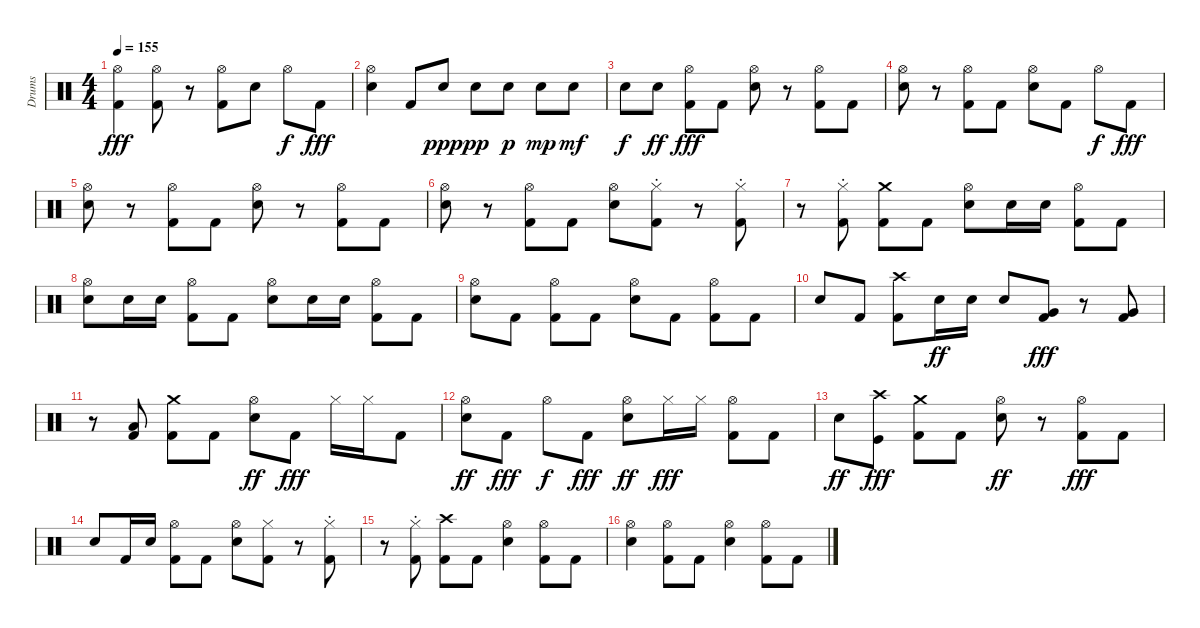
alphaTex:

\track ("Drums" "Drums") {instrument percussion}
\staff {score}
\articulation defaults
\ts (4 4)
\tempo 155
\clef neutral
\ks c
("Hi-Hat (open)" "Kick (hit) 2").4{dy fff} ("Hi-Hat (open)" "Kick (hit) 2").8 r.8 ("Hi-Hat (open)" "Kick (hit) 2").8 "Snare (hit) 2".8 "Hi-Hat (open)".8{dy f} "Kick (hit) 2".8{dy fff} |
("Hi-Hat (open)" "Snare (hit) 2").4 "Kick (hit) 2".8 "Snare (hit) 2".8{dy ppp} "Snare (hit) 2".8{dy pp} "Snare (hit) 2".8{dy p} "Snare (hit) 2".8{dy mp} "Snare (hit) 2".8{dy mf} |
"Snare (hit) 2".8{dy f} "Snare (hit) 2".8{dy ff} ("Hi-Hat (open)" "Kick (hit) 2").8{dy fff} "Kick (hit) 2".8 ("Hi-Hat (open)" "Snare (hit) 2").8 r.8 ("Hi-Hat (open)" "Kick (hit) 2").8 "Kick (hit) 2".8 |
("Hi-Hat (open)" "Snare (hit) 2").8 r.8 ("Hi-Hat (open)" "Kick (hit) 2").8 "Kick (hit) 2".8 ("Hi-Hat (open)" "Snare (hit) 2").8 "Kick (hit) 2".8 "Hi-Hat (open)".8{dy f} "Kick (hit) 2".8{dy fff} |
("Hi-Hat (open)" "Snare (hit) 2").8 r.8 ("Hi-Hat (open)" "Kick (hit) 2").8 "Kick (hit) 2".8 ("Hi-Hat (open)" "Snare (hit) 2").8 r.8 ("Hi-Hat (open)" "Kick (hit) 2").8 "Kick (hit) 2".8 |
("Hi-Hat (open)" "Snare (hit) 2").8 r.8 ("Hi-Hat (open)" "Kick (hit) 2").8 "Kick (hit) 2".8 ("Hi-Hat (open)" "Snare (hit) 2").8 ("Hi-Hat (closed)"{st} "Kick (hit) 2").8 r.8 ("Hi-Hat (closed)"{st} "Kick (hit) 2").8 |
r.8 ("Hi-Hat (closed)"{st} "Kick (hit) 2").8 ("Crash medium (hit)" "Kick (hit) 2").8 "Kick (hit) 2".8 ("Hi-Hat (open)" "Snare (hit) 2").8 "Snare (hit) 2".16 "Snare (hit) 2".16 ("Hi-Hat (open)" "Kick (hit) 2").8 "Kick (hit) 2".8 |
("Hi-Hat (open)" "Snare (hit) 2").8 "Snare (hit) 2".16 "Snare (hit) 2".16 ("Hi-Hat (open)" "Kick (hit) 2").8 "Kick (hit) 2".8 ("Hi-Hat (open)" "Snare (hit) 2").8 "Snare (hit) 2".16 "Snare (hit) 2".16 ("Hi-Hat (open)" "Kick (hit) 2").8 "Kick (hit) 2".8 |
("Hi-Hat (open)" "Snare (hit) 2").8 "Kick (hit) 2".8 ("Hi-Hat (open)" "Kick (hit) 2").8 "Kick (hit) 2".8 ("Hi-Hat (open)" "Snare (hit) 2").8 "Kick (hit) 2".8 ("Hi-Hat (open)" "Kick (hit) 2").8 "Kick (hit) 2".8 |
"Snare (hit) 2".8 "Kick (hit) 2".8 ("Crash high (hit)" "Kick (hit) 2").8 "Snare (hit) 2".16{dy ff} "Snare (hit) 2".16 "Snare (hit) 2".8 ("Very Low Tom (hit)" "Kick (hit) 2").8{dy fff} r.8 ("Very Low Tom (hit)" "Kick (hit) 2").8 |
r.8 ("Low Floor Tom (hit)" "Kick (hit) 2").8 ("Crash medium (hit)" "Kick (hit) 2").8 "Kick (hit) 2".8 ("Hi-Hat (open)" "Snare (hit) 2").8{dy ff} "Kick (hit) 2".8{dy fff} "Hi-Hat (closed)".16 "Hi-Hat (closed)".16 "Kick (hit) 2".8 |
("Hi-Hat (open)" "Snare (hit) 2").8{dy ff} "Kick (hit) 2".8{dy fff} "Hi-Hat (open)".8{dy f} "Kick (hit) 2".8{dy fff} ("Hi-Hat (open)" "Snare (hit) 2").8{dy ff} "Hi-Hat (closed)".16{dy fff} "Hi-Hat (closed)".16 ("Hi-Hat (open)" "Kick (hit) 2").8 "Kick (hit) 2".8 |
"Snare (hit) 2".8{dy ff} ("Crash high (hit)" "Kick (hit)").8{dy fff} ("Crash medium (hit)" "Kick (hit) 2").8 "Kick (hit) 2".8 ("Hi-Hat (open)" "Snare (hit) 2").8{dy ff} r.8 ("Hi-Hat (open)" "Kick (hit) 2").8{dy fff} "Kick (hit) 2".8 |
"Snare (hit) 2".8 "Kick (hit) 2".16 "Snare (hit) 2".16 ("Hi-Hat (open)" "Kick (hit) 2").8 "Kick (hit) 2".8 ("Hi-Hat (open)" "Snare (hit) 2").8 ("Hi-Hat (closed)" "Kick (hit) 2").8 r.8 ("Hi-Hat (closed)"{st} "Kick (hit) 2").8 |
r.8 ("Hi-Hat (closed)"{st} "Kick (hit) 2").8 ("Crash high (hit)" "Kick (hit) 2").8 "Kick (hit) 2".8 ("Hi-Hat (open)" "Snare (hit) 2").4 ("Hi-Hat (open)" "Kick (hit) 2").8 "Kick (hit) 2".8 |
("Hi-Hat (open)" "Snare (hit) 2").4 ("Hi-Hat (open)" "Kick (hit) 2").8 "Kick (hit) 2".8 ("Hi-Hat (open)" "Snare (hit) 2").4 ("Hi-Hat (open)" "Kick (hit) 2").8 "Kick (hit) 2".8
